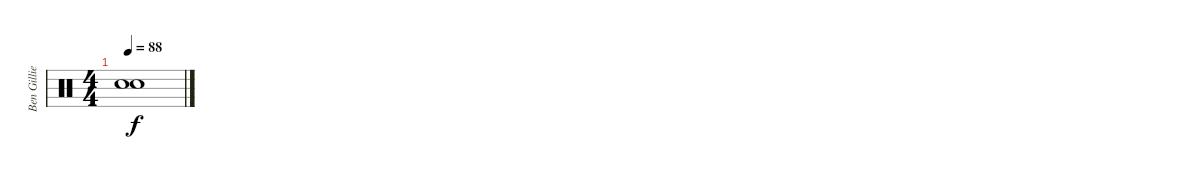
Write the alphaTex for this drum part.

\track ("Ben Gillies (Drums)" "Ben Gillie") {instrument percussion}
\staff {score}
\articulation defaults
\ts (4 4)
\tempo 88
\clef neutral
\ks c
("Snare (hit)"{t} "Snare (hit)"{t}).1{dy f}
